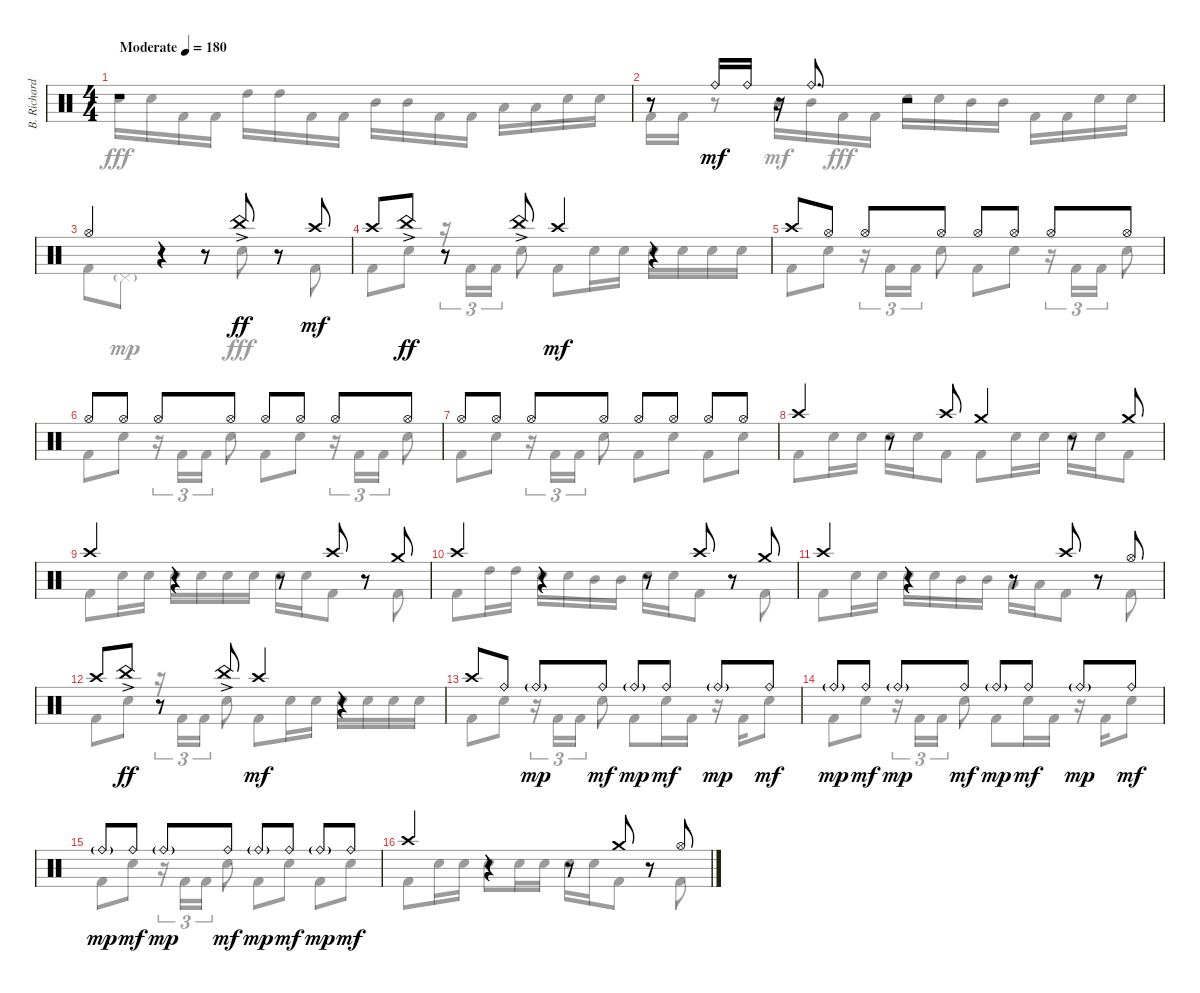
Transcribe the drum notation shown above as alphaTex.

\track ("B. Richardson Drums" "B. Richard") {instrument percussion}
\staff {score}
\articulation defaults
\voice
\ts (4 4)
\tempo (180 "Moderate")
\clef neutral
\ks c
r.1{dy mf} |
r.8 "Ride (bell)".16 "Ride (bell)".16 r.16 "Ride (bell)".8{d} r.2 |
"Hi-Hat (open)".4 r.4 r.8 "China (hit)"{ac}.8{dy ff} r.8 "Crash high (hit)".8{dy mf} |
"Crash high (hit)".8 "China (hit)"{ac}.8{dy ff} r.8 "China (hit)"{ac}.8 "Crash high (hit)".4{dy mf} r.4 |
"Crash high (hit)".8 "Hi-Hat (open)".8 "Hi-Hat (open)".8 "Hi-Hat (open)".8 "Hi-Hat (open)".8 "Hi-Hat (open)".8 "Hi-Hat (open)".8 "Hi-Hat (open)".8 |
"Hi-Hat (open)".8 "Hi-Hat (open)".8 "Hi-Hat (open)".8 "Hi-Hat (open)".8 "Hi-Hat (open)".8 "Hi-Hat (open)".8 "Hi-Hat (open)".8 "Hi-Hat (open)".8 |
"Hi-Hat (open)".8 "Hi-Hat (open)".8 "Hi-Hat (open)".8 "Hi-Hat (open)".8 "Hi-Hat (open)".8 "Hi-Hat (open)".8 "Hi-Hat (open)".8 "Hi-Hat (open)".8 |
"Crash high (hit)".4 r.8 "Crash high (hit)".8 "Crash medium (hit)".4 r.8 "Crash medium (hit)".8 |
"Crash high (hit)".4 r.4 r.8 "Crash high (hit)".8 r.8 "Crash medium (hit)".8 |
"Crash high (hit)".4 r.4 r.8 "Crash high (hit)".8 r.8 "Crash medium (hit)".8 |
"Crash high (hit)".4 r.4 r.8 "Crash high (hit)".8 r.8 "Hi-Hat (open)".8 |
"Crash high (hit)".8 "China (hit)"{ac}.8{dy ff} r.8 "China (hit)"{ac}.8 "Crash high (hit)".4{dy mf} r.4 |
"Crash high (hit)".8 "Ride (bell)".8 "Ride (bell)"{g}.8{dy mp} "Ride (bell)".8{dy mf} "Ride (bell)"{g}.8{dy mp} "Ride (bell)".8{dy mf} "Ride (bell)"{g}.8{dy mp} "Ride (bell)".8{dy mf} |
"Ride (bell)"{g}.8{dy mp} "Ride (bell)".8{dy mf} "Ride (bell)"{g}.8{dy mp} "Ride (bell)".8{dy mf} "Ride (bell)"{g}.8{dy mp} "Ride (bell)".8{dy mf} "Ride (bell)"{g}.8{dy mp} "Ride (bell)".8{dy mf} |
"Ride (bell)"{g}.8{dy mp} "Ride (bell)".8{dy mf} "Ride (bell)"{g}.8{dy mp} "Ride (bell)".8{dy mf} "Ride (bell)"{g}.8{dy mp} "Ride (bell)".8{dy mf} "Ride (bell)"{g}.8{dy mp} "Ride (bell)".8{dy mf} |
"Crash high (hit)".4 r.4 r.8 "Crash medium (hit)".8 r.8 "Hi-Hat (open)".8
\voice
\clef neutral
\ottava regular
\simile none
\ks c "Electric Snare (hit)".16{dy fff} "Electric Snare (hit)".16 "Kick (hit) 2".16 "Kick (hit) 2".16 "High Tom (hit)".16 "High Tom (hit)".16 "Kick (hit) 2".16 "Kick (hit) 2".16 "Mid Tom (hit)".16 "Mid Tom (hit)".16 "Kick (hit) 2".16 "Kick (hit) 2".16 "Low Tom (hit)".16 "Low Tom (hit)".16 "Electric Snare (hit)".16 "Electric Snare (hit)".16
|
"Kick (hit) 2".16 "Kick (hit) 2".16 r.8 "Mid Tom (hit)".16{dy mf} "Mid Tom (hit)".16 "Kick (hit) 2".16{dy fff} "Kick (hit) 2".16 "Electric Snare (hit)".16 "Electric Snare (hit)".16 "Mid Tom (hit)".16 "Mid Tom (hit)".16 "Kick (hit) 2".16 "Kick (hit) 2".16 "Electric Snare (hit)".16 "Electric Snare (hit)".16 |
"Kick (hit) 2".8 "Pedal Hi-Hat (hit)"{g}.8{dy mp} r.4 r.8 "Electric Snare (hit)".8{dy fff} r.8 "Kick (hit) 2".8 |
"Kick (hit) 2".8 "Electric Snare (hit)".8 r.16{tu (3 2)} "Kick (hit) 2".16{tu (3 2)} "Kick (hit) 2".16{tu (3 2)} "Electric Snare (hit)".8 "Kick (hit) 2".8 "Electric Snare (hit)".16 "Electric Snare (hit)".16 "Electric Snare (hit)".16 "Electric Snare (hit)".16 "Electric Snare (hit)".16 "Electric Snare (hit)".16 |
"Kick (hit) 2".8 "Electric Snare (hit)".8 r.16{tu (3 2)} "Kick (hit) 2".16{tu (3 2)} "Kick (hit) 2".16{tu (3 2)} "Electric Snare (hit)".8 "Kick (hit) 2".8 "Electric Snare (hit)".8 r.16{tu (3 2)} "Kick (hit) 2".16{tu (3 2)} "Kick (hit) 2".16{tu (3 2)} "Electric Snare (hit)".8 |
"Kick (hit) 2".8 "Electric Snare (hit)".8 r.16{tu (3 2)} "Kick (hit) 2".16{tu (3 2)} "Kick (hit) 2".16{tu (3 2)} "Electric Snare (hit)".8 "Kick (hit) 2".8 "Electric Snare (hit)".8 r.16{tu (3 2)} "Kick (hit) 2".16{tu (3 2)} "Kick (hit) 2".16{tu (3 2)} "Electric Snare (hit)".8 |
"Kick (hit) 2".8 "Electric Snare (hit)".8 r.16{tu (3 2)} "Kick (hit) 2".16{tu (3 2)} "Kick (hit) 2".16{tu (3 2)} "Electric Snare (hit)".8 "Kick (hit) 2".8 "Electric Snare (hit)".8 "Kick (hit) 2".8 "Electric Snare (hit)".8 |
"Kick (hit) 2".8 "Electric Snare (hit)".16 "Electric Snare (hit)".16 "Electric Snare (hit)".16 "Electric Snare (hit)".16 "Kick (hit) 2".8 "Kick (hit) 2".8 "Electric Snare (hit)".16 "Electric Snare (hit)".16 "Electric Snare (hit)".16 "Electric Snare (hit)".16 "Kick (hit) 2".8 |
"Kick (hit) 2".8 "Electric Snare (hit)".16 "Electric Snare (hit)".16 "Electric Snare (hit)".16 "Electric Snare (hit)".16 "Electric Snare (hit)".16 "Electric Snare (hit)".16 "Electric Snare (hit)".16 "Electric Snare (hit)".16 "Kick (hit) 2".8 r.8 "Kick (hit) 2".8 |
"Kick (hit) 2".8 "High Tom (hit)".16 "High Tom (hit)".16 "Electric Snare (hit)".16 "Electric Snare (hit)".16 "Mid Tom (hit)".16 "Mid Tom (hit)".16 "Electric Snare (hit)".16 "Electric Snare (hit)".16 "Kick (hit) 2".8 r.8 "Kick (hit) 2".8 |
"Kick (hit) 2".8 "Electric Snare (hit)".16 "Electric Snare (hit)".16 "Electric Snare (hit)".16 "Electric Snare (hit)".16 "Mid Tom (hit)".16 "Mid Tom (hit)".16 "Low Tom (hit)".16 "Low Tom (hit)".16 "Kick (hit) 2".8 r.8 "Kick (hit) 2".8 |
"Kick (hit) 2".8 "Electric Snare (hit)".8 r.16{tu (3 2)} "Kick (hit) 2".16{tu (3 2)} "Kick (hit) 2".16{tu (3 2)} "Electric Snare (hit)".8 "Kick (hit) 2".8 "Electric Snare (hit)".16 "Electric Snare (hit)".16 "Electric Snare (hit)".16 "Electric Snare (hit)".16 "Electric Snare (hit)".16 "Electric Snare (hit)".16 |
"Kick (hit) 2".8 "Electric Snare (hit)".8 r.16{tu (3 2)} "Kick (hit) 2".16{tu (3 2)} "Kick (hit) 2".16{tu (3 2)} "Electric Snare (hit)".8 "Kick (hit) 2".8 "Electric Snare (hit)".16 "Kick (hit) 2".16 r.16 "Kick (hit) 2".16 "Electric Snare (hit)".8 |
"Kick (hit) 2".8 "Electric Snare (hit)".8 r.16{tu (3 2)} "Kick (hit) 2".16{tu (3 2)} "Kick (hit) 2".16{tu (3 2)} "Electric Snare (hit)".8 "Kick (hit) 2".8 "Electric Snare (hit)".16 "Kick (hit) 2".16 r.16 "Kick (hit) 2".16 "Electric Snare (hit)".8 |
"Kick (hit) 2".8 "Electric Snare (hit)".8 r.16{tu (3 2)} "Kick (hit) 2".16{tu (3 2)} "Kick (hit) 2".16{tu (3 2)} "Electric Snare (hit)".8 "Kick (hit) 2".8 "Electric Snare (hit)".8 "Kick (hit) 2".8 "Electric Snare (hit)".8 |
"Kick (hit) 2".8 "Electric Snare (hit)".16 "Electric Snare (hit)".16 "Electric Snare (hit)".8 "Electric Snare (hit)".16 "Electric Snare (hit)".16 "Electric Snare (hit)".16 "Electric Snare (hit)".16 "Kick (hit) 2".8 r.8 "Kick (hit) 2".8
